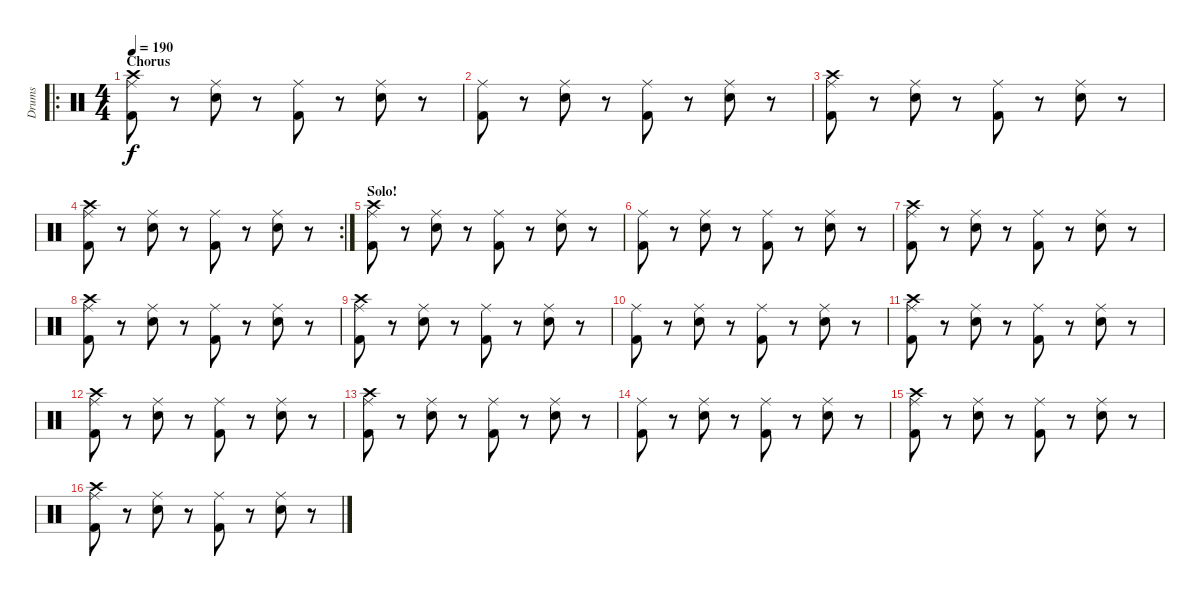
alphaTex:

\track ("Drums" "Drums") {instrument percussion}
\staff {score}
\articulation defaults
\ro
\ts (4 4)
\section ("" "Chorus")
\tempo 190
\clef neutral
\ks c
("Crash high (hit)" "Ride (middle)" "Kick (hit) 2").8{dy f} r.8 ("Ride (middle)" "Electric Snare (hit)").8 r.8 ("Ride (middle)" "Kick (hit) 2").8 r.8 ("Ride (middle)" "Electric Snare (hit)").8 r.8 |
("Ride (middle)" "Kick (hit) 2").8 r.8 ("Ride (middle)" "Electric Snare (hit)").8 r.8 ("Ride (middle)" "Kick (hit) 2").8 r.8 ("Ride (middle)" "Electric Snare (hit)").8 r.8 |
("Crash high (hit)" "Ride (middle)" "Kick (hit) 2").8 r.8 ("Ride (middle)" "Electric Snare (hit)").8 r.8 ("Ride (middle)" "Kick (hit) 2").8 r.8 ("Ride (middle)" "Electric Snare (hit)").8 r.8 |
\rc 2
("Crash high (hit)" "Ride (middle)" "Kick (hit) 2").8 r.8 ("Ride (middle)" "Electric Snare (hit)").8 r.8 ("Ride (middle)" "Kick (hit) 2").8 r.8 ("Ride (middle)" "Electric Snare (hit)").8 r.8 |
\section ("" "Solo!")
("Crash high (hit)" "Ride (middle)" "Kick (hit) 2").8 r.8 ("Ride (middle)" "Electric Snare (hit)").8 r.8 ("Ride (middle)" "Kick (hit) 2").8 r.8 ("Ride (middle)" "Electric Snare (hit)").8 r.8 |
("Ride (middle)" "Kick (hit) 2").8 r.8 ("Ride (middle)" "Electric Snare (hit)").8 r.8 ("Ride (middle)" "Kick (hit) 2").8 r.8 ("Ride (middle)" "Electric Snare (hit)").8 r.8 |
("Crash high (hit)" "Ride (middle)" "Kick (hit) 2").8 r.8 ("Ride (middle)" "Electric Snare (hit)").8 r.8 ("Ride (middle)" "Kick (hit) 2").8 r.8 ("Ride (middle)" "Electric Snare (hit)").8 r.8 |
("Crash high (hit)" "Ride (middle)" "Kick (hit) 2").8 r.8 ("Ride (middle)" "Electric Snare (hit)").8 r.8 ("Ride (middle)" "Kick (hit) 2").8 r.8 ("Ride (middle)" "Electric Snare (hit)").8 r.8 |
("Crash high (hit)" "Ride (middle)" "Kick (hit) 2").8 r.8 ("Ride (middle)" "Electric Snare (hit)").8 r.8 ("Ride (middle)" "Kick (hit) 2").8 r.8 ("Ride (middle)" "Electric Snare (hit)").8 r.8 |
("Ride (middle)" "Kick (hit) 2").8 r.8 ("Ride (middle)" "Electric Snare (hit)").8 r.8 ("Ride (middle)" "Kick (hit) 2").8 r.8 ("Ride (middle)" "Electric Snare (hit)").8 r.8 |
("Crash high (hit)" "Ride (middle)" "Kick (hit) 2").8 r.8 ("Ride (middle)" "Electric Snare (hit)").8 r.8 ("Ride (middle)" "Kick (hit) 2").8 r.8 ("Ride (middle)" "Electric Snare (hit)").8 r.8 |
("Crash high (hit)" "Ride (middle)" "Kick (hit) 2").8 r.8 ("Ride (middle)" "Electric Snare (hit)").8 r.8 ("Ride (middle)" "Kick (hit) 2").8 r.8 ("Ride (middle)" "Electric Snare (hit)").8 r.8 |
("Crash high (hit)" "Ride (middle)" "Kick (hit) 2").8 r.8 ("Ride (middle)" "Electric Snare (hit)").8 r.8 ("Ride (middle)" "Kick (hit) 2").8 r.8 ("Ride (middle)" "Electric Snare (hit)").8 r.8 |
("Ride (middle)" "Kick (hit) 2").8 r.8 ("Ride (middle)" "Electric Snare (hit)").8 r.8 ("Ride (middle)" "Kick (hit) 2").8 r.8 ("Ride (middle)" "Electric Snare (hit)").8 r.8 |
("Crash high (hit)" "Ride (middle)" "Kick (hit) 2").8 r.8 ("Ride (middle)" "Electric Snare (hit)").8 r.8 ("Ride (middle)" "Kick (hit) 2").8 r.8 ("Ride (middle)" "Electric Snare (hit)").8 r.8 |
("Crash high (hit)" "Ride (middle)" "Kick (hit) 2").8 r.8 ("Ride (middle)" "Electric Snare (hit)").8 r.8 ("Ride (middle)" "Kick (hit) 2").8 r.8 ("Ride (middle)" "Electric Snare (hit)").8 r.8
